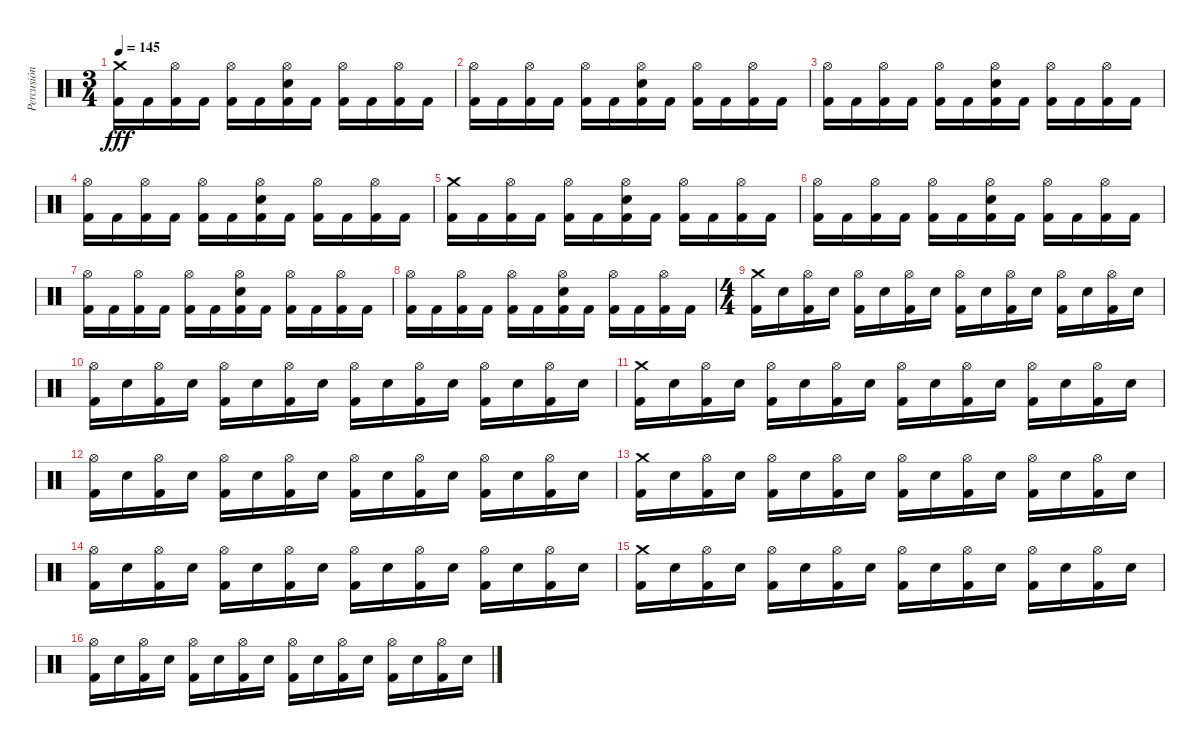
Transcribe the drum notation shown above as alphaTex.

\track ("Percusión" "Percusión") {instrument percussion}
\staff {score}
\articulation defaults
\ts (3 4)
\tempo 145
\clef neutral
\ks c
("Crash medium (hit)" "Kick (hit) 2").16{dy fff} "Kick (hit) 2".16 ("Hi-Hat (open)" "Kick (hit) 2").16 "Kick (hit) 2".16 ("Hi-Hat (open)" "Kick (hit) 2").16 "Kick (hit) 2".16 ("Hi-Hat (open)" "Snare (hit) 2" "Kick (hit) 2").16 "Kick (hit) 2".16 ("Hi-Hat (open)" "Kick (hit) 2").16 "Kick (hit) 2".16 ("Hi-Hat (open)" "Kick (hit) 2").16 "Kick (hit) 2".16 |
("Hi-Hat (open)" "Kick (hit) 2").16 "Kick (hit) 2".16 ("Hi-Hat (open)" "Kick (hit) 2").16 "Kick (hit) 2".16 ("Hi-Hat (open)" "Kick (hit) 2").16 "Kick (hit) 2".16 ("Hi-Hat (open)" "Snare (hit) 2" "Kick (hit) 2").16 "Kick (hit) 2".16 ("Hi-Hat (open)" "Kick (hit) 2").16 "Kick (hit) 2".16 ("Hi-Hat (open)" "Kick (hit) 2").16 "Kick (hit) 2".16 |
("Hi-Hat (open)" "Kick (hit) 2").16 "Kick (hit) 2".16 ("Hi-Hat (open)" "Kick (hit) 2").16 "Kick (hit) 2".16 ("Hi-Hat (open)" "Kick (hit) 2").16 "Kick (hit) 2".16 ("Hi-Hat (open)" "Snare (hit) 2" "Kick (hit) 2").16 "Kick (hit) 2".16 ("Hi-Hat (open)" "Kick (hit) 2").16 "Kick (hit) 2".16 ("Hi-Hat (open)" "Kick (hit) 2").16 "Kick (hit) 2".16 |
("Hi-Hat (open)" "Kick (hit) 2").16 "Kick (hit) 2".16 ("Hi-Hat (open)" "Kick (hit) 2").16 "Kick (hit) 2".16 ("Hi-Hat (open)" "Kick (hit) 2").16 "Kick (hit) 2".16 ("Hi-Hat (open)" "Snare (hit) 2" "Kick (hit) 2").16 "Kick (hit) 2".16 ("Hi-Hat (open)" "Kick (hit) 2").16 "Kick (hit) 2".16 ("Hi-Hat (open)" "Kick (hit) 2").16 "Kick (hit) 2".16 |
("Crash medium (hit)" "Kick (hit) 2").16 "Kick (hit) 2".16 ("Hi-Hat (open)" "Kick (hit) 2").16 "Kick (hit) 2".16 ("Hi-Hat (open)" "Kick (hit) 2").16 "Kick (hit) 2".16 ("Hi-Hat (open)" "Snare (hit) 2" "Kick (hit) 2").16 "Kick (hit) 2".16 ("Hi-Hat (open)" "Kick (hit) 2").16 "Kick (hit) 2".16 ("Hi-Hat (open)" "Kick (hit) 2").16 "Kick (hit) 2".16 |
("Hi-Hat (open)" "Kick (hit) 2").16 "Kick (hit) 2".16 ("Hi-Hat (open)" "Kick (hit) 2").16 "Kick (hit) 2".16 ("Hi-Hat (open)" "Kick (hit) 2").16 "Kick (hit) 2".16 ("Hi-Hat (open)" "Snare (hit) 2" "Kick (hit) 2").16 "Kick (hit) 2".16 ("Hi-Hat (open)" "Kick (hit) 2").16 "Kick (hit) 2".16 ("Hi-Hat (open)" "Kick (hit) 2").16 "Kick (hit) 2".16 |
("Hi-Hat (open)" "Kick (hit) 2").16 "Kick (hit) 2".16 ("Hi-Hat (open)" "Kick (hit) 2").16 "Kick (hit) 2".16 ("Hi-Hat (open)" "Kick (hit) 2").16 "Kick (hit) 2".16 ("Hi-Hat (open)" "Snare (hit) 2" "Kick (hit) 2").16 "Kick (hit) 2".16 ("Hi-Hat (open)" "Kick (hit) 2").16 "Kick (hit) 2".16 ("Hi-Hat (open)" "Kick (hit) 2").16 "Kick (hit) 2".16 |
("Hi-Hat (open)" "Kick (hit) 2").16 "Kick (hit) 2".16 ("Hi-Hat (open)" "Kick (hit) 2").16 "Kick (hit) 2".16 ("Hi-Hat (open)" "Kick (hit) 2").16 "Kick (hit) 2".16 ("Hi-Hat (open)" "Snare (hit) 2" "Kick (hit) 2").16 "Kick (hit) 2".16 ("Hi-Hat (open)" "Kick (hit) 2").16 "Kick (hit) 2".16 ("Hi-Hat (open)" "Kick (hit) 2").16 "Kick (hit) 2".16 |
\ts (4 4)
("Crash medium (hit)" "Kick (hit) 2").16 "Snare (hit) 2".16 ("Hi-Hat (open)" "Kick (hit) 2").16 "Snare (hit) 2".16 ("Hi-Hat (open)" "Kick (hit) 2").16 "Snare (hit) 2".16 ("Hi-Hat (open)" "Kick (hit) 2").16 "Snare (hit) 2".16 ("Hi-Hat (open)" "Kick (hit) 2").16 "Snare (hit) 2".16 ("Hi-Hat (open)" "Kick (hit) 2").16 "Snare (hit) 2".16 ("Hi-Hat (open)" "Kick (hit) 2").16 "Snare (hit) 2".16 ("Hi-Hat (open)" "Kick (hit) 2").16 "Snare (hit) 2".16 |
("Hi-Hat (open)" "Kick (hit) 2").16 "Snare (hit) 2".16 ("Hi-Hat (open)" "Kick (hit) 2").16 "Snare (hit) 2".16 ("Hi-Hat (open)" "Kick (hit) 2").16 "Snare (hit) 2".16 ("Hi-Hat (open)" "Kick (hit) 2").16 "Snare (hit) 2".16 ("Hi-Hat (open)" "Kick (hit) 2").16 "Snare (hit) 2".16 ("Hi-Hat (open)" "Kick (hit) 2").16 "Snare (hit) 2".16 ("Hi-Hat (open)" "Kick (hit) 2").16 "Snare (hit) 2".16 ("Hi-Hat (open)" "Kick (hit) 2").16 "Snare (hit) 2".16 |
("Crash medium (hit)" "Kick (hit) 2").16 "Snare (hit) 2".16 ("Hi-Hat (open)" "Kick (hit) 2").16 "Snare (hit) 2".16 ("Hi-Hat (open)" "Kick (hit) 2").16 "Snare (hit) 2".16 ("Hi-Hat (open)" "Kick (hit) 2").16 "Snare (hit) 2".16 ("Hi-Hat (open)" "Kick (hit) 2").16 "Snare (hit) 2".16 ("Hi-Hat (open)" "Kick (hit) 2").16 "Snare (hit) 2".16 ("Hi-Hat (open)" "Kick (hit) 2").16 "Snare (hit) 2".16 ("Hi-Hat (open)" "Kick (hit) 2").16 "Snare (hit) 2".16 |
("Hi-Hat (open)" "Kick (hit) 2").16 "Snare (hit) 2".16 ("Hi-Hat (open)" "Kick (hit) 2").16 "Snare (hit) 2".16 ("Hi-Hat (open)" "Kick (hit) 2").16 "Snare (hit) 2".16 ("Hi-Hat (open)" "Kick (hit) 2").16 "Snare (hit) 2".16 ("Hi-Hat (open)" "Kick (hit) 2").16 "Snare (hit) 2".16 ("Hi-Hat (open)" "Kick (hit) 2").16 "Snare (hit) 2".16 ("Hi-Hat (open)" "Kick (hit) 2").16 "Snare (hit) 2".16 ("Hi-Hat (open)" "Kick (hit) 2").16 "Snare (hit) 2".16 |
("Crash medium (hit)" "Kick (hit) 2").16 "Snare (hit) 2".16 ("Hi-Hat (open)" "Kick (hit) 2").16 "Snare (hit) 2".16 ("Hi-Hat (open)" "Kick (hit) 2").16 "Snare (hit) 2".16 ("Hi-Hat (open)" "Kick (hit) 2").16 "Snare (hit) 2".16 ("Hi-Hat (open)" "Kick (hit) 2").16 "Snare (hit) 2".16 ("Hi-Hat (open)" "Kick (hit) 2").16 "Snare (hit) 2".16 ("Hi-Hat (open)" "Kick (hit) 2").16 "Snare (hit) 2".16 ("Hi-Hat (open)" "Kick (hit) 2").16 "Snare (hit) 2".16 |
("Hi-Hat (open)" "Kick (hit) 2").16 "Snare (hit) 2".16 ("Hi-Hat (open)" "Kick (hit) 2").16 "Snare (hit) 2".16 ("Hi-Hat (open)" "Kick (hit) 2").16 "Snare (hit) 2".16 ("Hi-Hat (open)" "Kick (hit) 2").16 "Snare (hit) 2".16 ("Hi-Hat (open)" "Kick (hit) 2").16 "Snare (hit) 2".16 ("Hi-Hat (open)" "Kick (hit) 2").16 "Snare (hit) 2".16 ("Hi-Hat (open)" "Kick (hit) 2").16 "Snare (hit) 2".16 ("Hi-Hat (open)" "Kick (hit) 2").16 "Snare (hit) 2".16 |
("Crash medium (hit)" "Kick (hit) 2").16 "Snare (hit) 2".16 ("Hi-Hat (open)" "Kick (hit) 2").16 "Snare (hit) 2".16 ("Hi-Hat (open)" "Kick (hit) 2").16 "Snare (hit) 2".16 ("Hi-Hat (open)" "Kick (hit) 2").16 "Snare (hit) 2".16 ("Hi-Hat (open)" "Kick (hit) 2").16 "Snare (hit) 2".16 ("Hi-Hat (open)" "Kick (hit) 2").16 "Snare (hit) 2".16 ("Hi-Hat (open)" "Kick (hit) 2").16 "Snare (hit) 2".16 ("Hi-Hat (open)" "Kick (hit) 2").16 "Snare (hit) 2".16 |
("Hi-Hat (open)" "Kick (hit) 2").16 "Snare (hit) 2".16 ("Hi-Hat (open)" "Kick (hit) 2").16 "Snare (hit) 2".16 ("Hi-Hat (open)" "Kick (hit) 2").16 "Snare (hit) 2".16 ("Hi-Hat (open)" "Kick (hit) 2").16 "Snare (hit) 2".16 ("Hi-Hat (open)" "Kick (hit) 2").16 "Snare (hit) 2".16 ("Hi-Hat (open)" "Kick (hit) 2").16 "Snare (hit) 2".16 ("Hi-Hat (open)" "Kick (hit) 2").16 "Snare (hit) 2".16 ("Hi-Hat (open)" "Kick (hit) 2").16 "Snare (hit) 2".16
